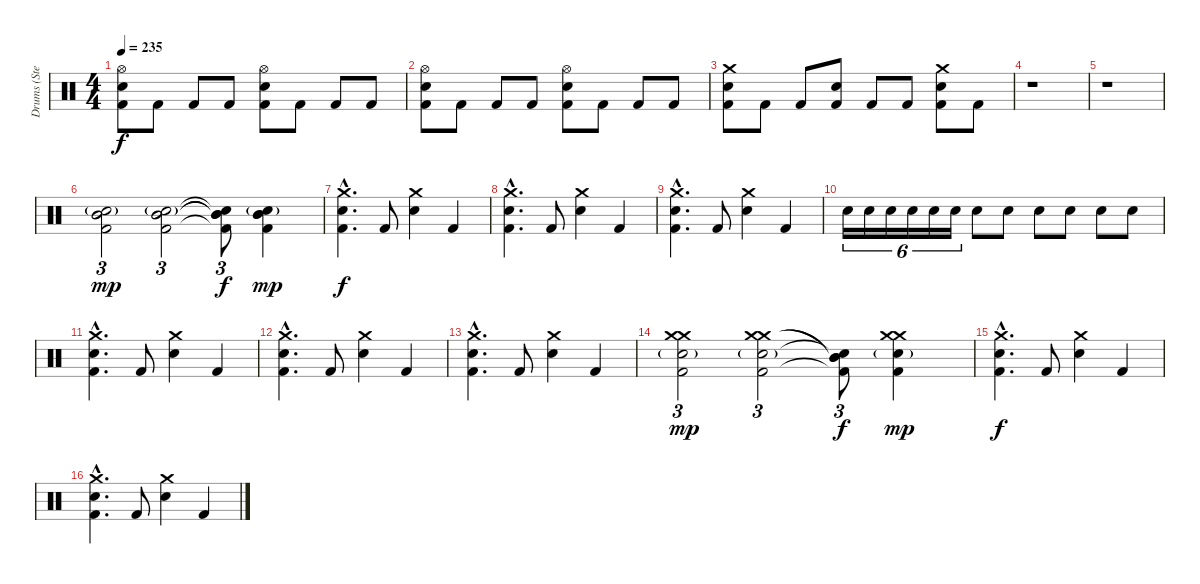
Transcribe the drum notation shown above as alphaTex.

\track ("Drums (Steve Jocz)" "Drums (Ste") {instrument percussion}
\staff {score}
\articulation defaults
\ts (4 4)
\tempo 235
\clef neutral
\ks c
("Hi-Hat (open)" "Electric Snare (hit)" "Kick (hit) 2").8{dy f} "Kick (hit) 2".8 "Kick (hit) 2".8 "Kick (hit) 2".8 ("Hi-Hat (open)" "Electric Snare (hit)" "Kick (hit) 2").8 "Kick (hit) 2".8 "Kick (hit) 2".8 "Kick (hit) 2".8 |
("Hi-Hat (open)" "Electric Snare (hit)" "Kick (hit) 2").8 "Kick (hit) 2".8 "Kick (hit) 2".8 "Kick (hit) 2".8 ("Hi-Hat (open)" "Electric Snare (hit)" "Kick (hit) 2").8 "Kick (hit) 2".8 "Kick (hit) 2".8 "Kick (hit) 2".8 |
("Crash medium (hit)" "Electric Snare (hit)" "Kick (hit) 2").8 "Kick (hit) 2".8 "Kick (hit) 2".8 ("Electric Snare (hit)" "Kick (hit) 2").8 "Kick (hit) 2".8 "Kick (hit) 2".8 ("Crash medium (hit)" "Electric Snare (hit)" "Kick (hit) 2").8 "Kick (hit) 2".8 |
r.1 |
r.1 |
("Mid Tom (hit)" "Mid Tom (hit)" "Electric Snare (hit)"{g} "Kick (hit) 2").2{tu (3 2) dy mp} ("Mid Tom (hit)" "Mid Tom (hit)" "Electric Snare (hit)"{g} "Kick (hit) 2").2{tu (3 2)} ("Mid Tom (hit)"{t} "Mid Tom (hit)"{t} "Electric Snare (hit)"{t} "Kick (hit) 2"{t}).8{tu (3 2) dy f} ("Mid Tom (hit)" "Mid Tom (hit)" "Electric Snare (hit)"{g} "Kick (hit) 2").4{dy mp} |
("Crash medium (hit)"{hac} "Electric Snare (hit)"{hac} "Kick (hit) 2"{hac}).4{d dy f} "Kick (hit) 2".8 ("Crash medium (hit)" "Electric Snare (hit)").4 "Kick (hit) 2".4 |
("Crash medium (hit)"{hac} "Electric Snare (hit)"{hac} "Kick (hit) 2"{hac}).4{d} "Kick (hit) 2".8 ("Crash medium (hit)" "Electric Snare (hit)").4 "Kick (hit) 2".4 |
("Crash medium (hit)"{hac} "Electric Snare (hit)"{hac} "Kick (hit) 2"{hac}).4{d} "Kick (hit) 2".8 ("Crash medium (hit)" "Electric Snare (hit)").4 "Kick (hit) 2".4 |
"Electric Snare (hit)".16{tu (6 4)} "Electric Snare (hit)".16{tu (6 4)} "Electric Snare (hit)".16{tu (6 4)} "Electric Snare (hit)".16{tu (6 4)} "Electric Snare (hit)".16{tu (6 4)} "Electric Snare (hit)".16{tu (6 4)} "Electric Snare (hit)".8 "Electric Snare (hit)".8 "Electric Snare (hit)".8 "Electric Snare (hit)".8 "Electric Snare (hit)".8 "Electric Snare (hit)".8 |
("Crash medium (hit)"{hac} "Electric Snare (hit)"{hac} "Kick (hit) 2"{hac}).4{d} "Kick (hit) 2".8 ("Crash medium (hit)" "Electric Snare (hit)").4 "Kick (hit) 2".4 |
("Crash medium (hit)"{hac} "Electric Snare (hit)"{hac} "Kick (hit) 2"{hac}).4{d} "Kick (hit) 2".8 ("Crash medium (hit)" "Electric Snare (hit)").4 "Kick (hit) 2".4 |
("Crash medium (hit)"{hac} "Electric Snare (hit)"{hac} "Kick (hit) 2"{hac}).4{d} "Kick (hit) 2".8 ("Crash medium (hit)" "Electric Snare (hit)").4 "Kick (hit) 2".4 |
("Crash medium (hit)" "Crash medium (hit)" "Electric Snare (hit)"{g} "Kick (hit) 2").2{tu (3 2) dy mp} ("Crash medium (hit)" "Crash medium (hit)" "Electric Snare (hit)"{g} "Kick (hit) 2").2{tu (3 2)} ("Mid Tom (hit)"{t} "Mid Tom (hit)"{t} "Electric Snare (hit)"{t} "Kick (hit) 2"{t}).8{tu (3 2) dy f} ("Crash medium (hit)" "Crash medium (hit)" "Electric Snare (hit)"{g} "Kick (hit) 2").4{dy mp} |
("Crash medium (hit)"{hac} "Electric Snare (hit)"{hac} "Kick (hit) 2"{hac}).4{d dy f} "Kick (hit) 2".8 ("Crash medium (hit)" "Electric Snare (hit)").4 "Kick (hit) 2".4 |
("Crash medium (hit)"{hac} "Electric Snare (hit)"{hac} "Kick (hit) 2"{hac}).4{d} "Kick (hit) 2".8 ("Crash medium (hit)" "Electric Snare (hit)").4 "Kick (hit) 2".4
